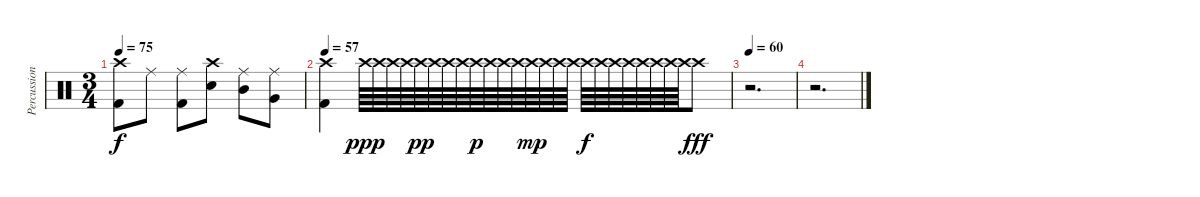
\track ("Percussion" "Percussion") {instrument percussion}
\staff {score}
\articulation defaults
\ts (3 4)
\tempo 75
\clef neutral
\ks c
("Crash high (hit)" "Kick (hit) 2").8{dy f} "Ride (middle)".8 ("Ride (middle)" "Kick (hit) 2").8 ("Crash high (hit)" "Snare (hit) 2").8 ("Ride (middle)" "Mid Tom (hit)").8 ("Ride (middle)" "Very Low Tom (hit)").8 |
\tempo 57
("Crash high (hit)" "Kick (hit) 2").4 "Crash high (hit)".64{dy ppp} "Crash high (hit)".64 "Crash high (hit)".64 "Crash high (hit)".64 "Crash high (hit)".64{dy pp} "Crash high (hit)".64 "Crash high (hit)".64 "Crash high (hit)".64 "Crash high (hit)".64{dy p} "Crash high (hit)".64 "Crash high (hit)".64 "Crash high (hit)".64 "Crash high (hit)".64{dy mp} "Crash high (hit)".64 "Crash high (hit)".64 "Crash high (hit)".64 "Crash high (hit)".64{dy f} "Crash high (hit)".64 "Crash high (hit)".64 "Crash high (hit)".64 "Crash high (hit)".64 "Crash high (hit)".64 "Crash high (hit)".64 "Crash high (hit)".64 "Crash high (hit)".8{dy fff} |
\tempo 60
r.2{d} |
r.2{d}
